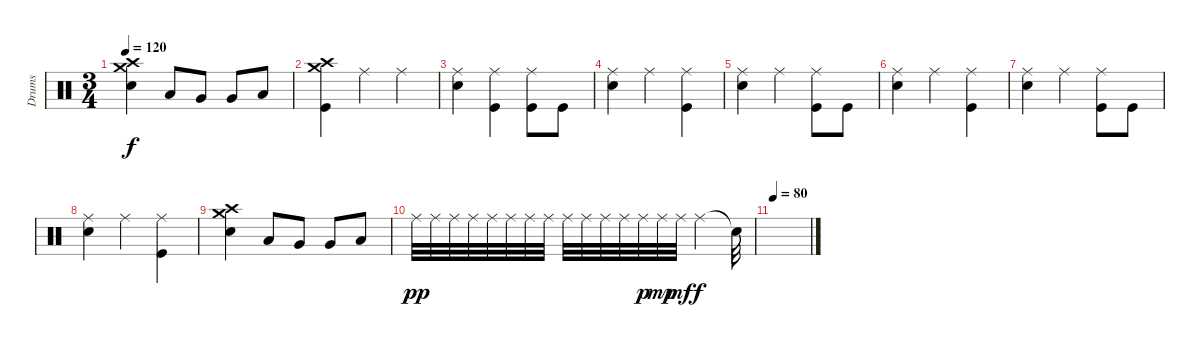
\track ("Drums" "Drums") {instrument percussion}
\staff {score}
\articulation defaults
\ts (3 4)
\tempo 120
\clef neutral
\ks c
("Crash medium (hit)" "Crash high (hit)" "Snare (hit) 2").4{dy f} "Low Tom (hit)".8 "Very Low Tom (hit)".8 "Very Low Tom (hit)".8 "Low Floor Tom (hit)".8 |
("Crash medium (hit)" "Crash high (hit)" "Kick (hit)").4 "Ride (middle)".4 "Ride (middle)".4 |
("Ride (middle)" "Snare (hit) 2").4 ("Ride (middle)" "Kick (hit)").4 ("Ride (middle)" "Kick (hit)").8 "Kick (hit)".8 |
("Ride (middle)" "Snare (hit) 2").4 "Ride (middle)".4 ("Ride (middle)" "Kick (hit)").4 |
("Ride (middle)" "Snare (hit) 2").4 "Ride (middle)".4 ("Ride (middle)" "Kick (hit)").8 "Kick (hit)".8 |
("Ride (middle)" "Snare (hit) 2").4 "Ride (middle)".4 ("Ride (middle)" "Kick (hit)").4 |
("Ride (middle)" "Snare (hit) 2").4 "Ride (middle)".4 ("Ride (middle)" "Kick (hit)").8 "Kick (hit)".8 |
("Ride (middle)" "Snare (hit) 2").4 "Ride (middle)".4 ("Ride (middle)" "Kick (hit)").4 |
("Crash medium (hit)" "Crash high (hit)" "Snare (hit) 2").4 "Low Tom (hit)".8 "Very Low Tom (hit)".8 "Very Low Tom (hit)".8 "Low Floor Tom (hit)".8 |
"Ride (middle)".32{dy pp} "Ride (middle)".32 "Ride (middle)".32 "Ride (middle)".32 "Ride (middle)".32 "Ride (middle)".32 "Ride (middle)".32 "Ride (middle)".32 "Ride (middle)".32 "Ride (middle)".32 "Ride (middle)".32 "Ride (middle)".32 "Ride (middle)".32{dy p} "Ride (middle)".32{dy mp} "Ride (middle)".32{dy mf} "Ride (middle)".4{dy f} "Snare (hit)"{t}.32 |
\tempo 80
